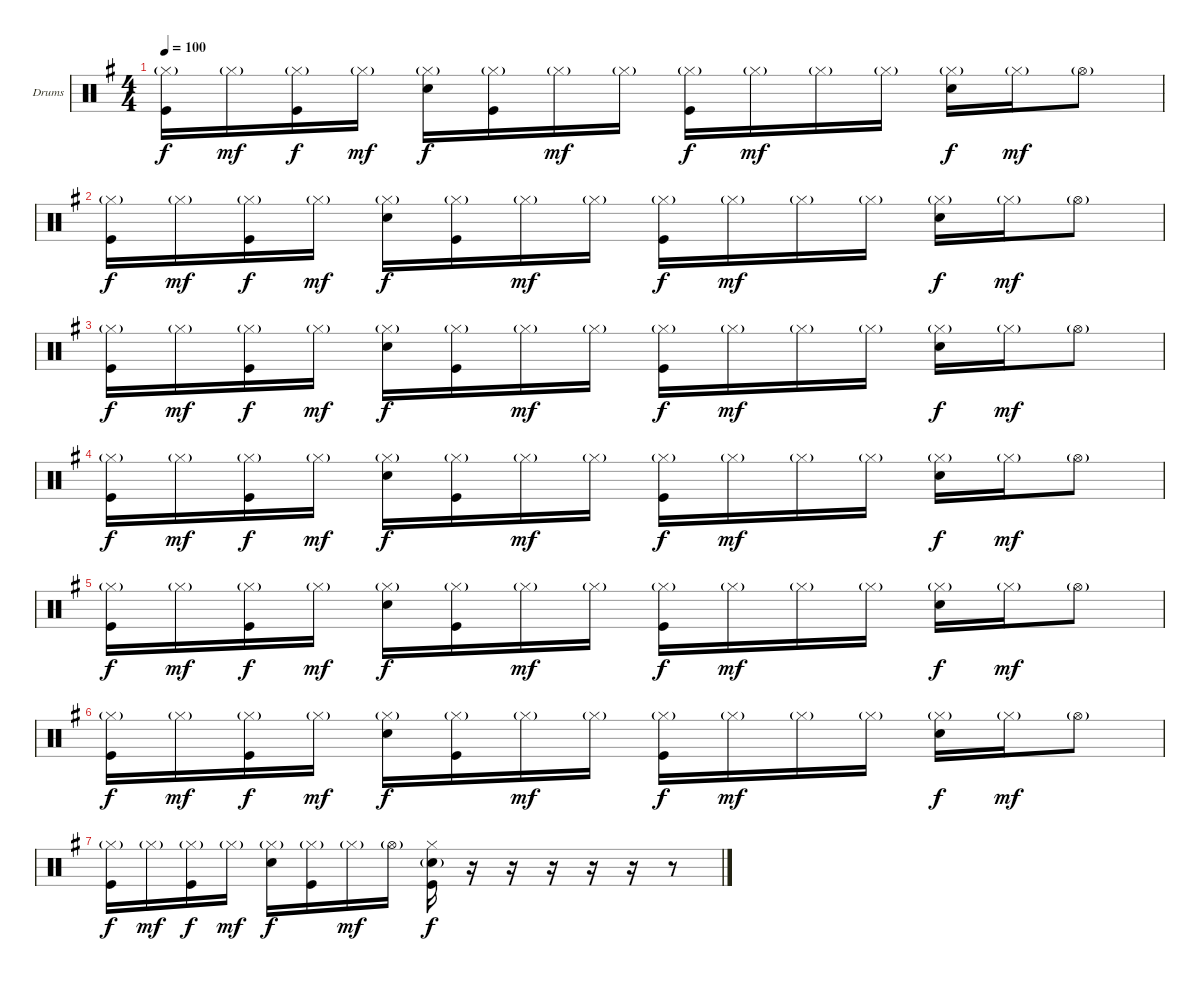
\bracketExtendMode groupsimilarinstruments
\firstSystemTrackNameOrientation horizontal
\otherSystemsTrackNameOrientation horizontal
\track ("Drumkit" "Drums") {instrument percussion}
\staff {score}
\articulation defaults
\ts (4 4)
\tempo 100
\clef neutral
\ks eminor
("Hi-Hat (closed)"{g} "Kick (hit)").16{dy f} "Hi-Hat (closed)"{g}.16{dy mf} ("Hi-Hat (closed)"{g} "Kick (hit)").16{dy f} "Hi-Hat (closed)"{g}.16{dy mf} ("Hi-Hat (closed)"{g} "Snare (hit) 2").16{dy f} ("Hi-Hat (closed)"{g} "Kick (hit)").16 "Hi-Hat (closed)"{g}.16{dy mf} "Hi-Hat (closed)"{g}.16 ("Hi-Hat (closed)"{g} "Kick (hit)").16{dy f} "Hi-Hat (closed)"{g}.16{dy mf} "Hi-Hat (closed)"{g}.16 "Hi-Hat (closed)"{g}.16 ("Hi-Hat (closed)"{g} "Snare (hit) 2").16{dy f} "Hi-Hat (closed)"{g}.16{dy mf} "Hi-Hat (open)"{g}.8 |
("Hi-Hat (closed)"{g} "Kick (hit)").16{dy f} "Hi-Hat (closed)"{g}.16{dy mf} ("Hi-Hat (closed)"{g} "Kick (hit)").16{dy f} "Hi-Hat (closed)"{g}.16{dy mf} ("Hi-Hat (closed)"{g} "Snare (hit) 2").16{dy f} ("Hi-Hat (closed)"{g} "Kick (hit)").16 "Hi-Hat (closed)"{g}.16{dy mf} "Hi-Hat (closed)"{g}.16 ("Hi-Hat (closed)"{g} "Kick (hit)").16{dy f} "Hi-Hat (closed)"{g}.16{dy mf} "Hi-Hat (closed)"{g}.16 "Hi-Hat (closed)"{g}.16 ("Hi-Hat (closed)"{g} "Snare (hit) 2").16{dy f} "Hi-Hat (closed)"{g}.16{dy mf} "Hi-Hat (open)"{g}.8 |
("Hi-Hat (closed)"{g} "Kick (hit)").16{dy f} "Hi-Hat (closed)"{g}.16{dy mf} ("Hi-Hat (closed)"{g} "Kick (hit)").16{dy f} "Hi-Hat (closed)"{g}.16{dy mf} ("Hi-Hat (closed)"{g} "Snare (hit) 2").16{dy f} ("Hi-Hat (closed)"{g} "Kick (hit)").16 "Hi-Hat (closed)"{g}.16{dy mf} "Hi-Hat (closed)"{g}.16 ("Hi-Hat (closed)"{g} "Kick (hit)").16{dy f} "Hi-Hat (closed)"{g}.16{dy mf} "Hi-Hat (closed)"{g}.16 "Hi-Hat (closed)"{g}.16 ("Hi-Hat (closed)"{g} "Snare (hit) 2").16{dy f} "Hi-Hat (closed)"{g}.16{dy mf} "Hi-Hat (open)"{g}.8 |
("Hi-Hat (closed)"{g} "Kick (hit)").16{dy f} "Hi-Hat (closed)"{g}.16{dy mf} ("Hi-Hat (closed)"{g} "Kick (hit)").16{dy f} "Hi-Hat (closed)"{g}.16{dy mf} ("Hi-Hat (closed)"{g} "Snare (hit) 2").16{dy f} ("Hi-Hat (closed)"{g} "Kick (hit)").16 "Hi-Hat (closed)"{g}.16{dy mf} "Hi-Hat (closed)"{g}.16 ("Hi-Hat (closed)"{g} "Kick (hit)").16{dy f} "Hi-Hat (closed)"{g}.16{dy mf} "Hi-Hat (closed)"{g}.16 "Hi-Hat (closed)"{g}.16 ("Hi-Hat (closed)"{g} "Snare (hit) 2").16{dy f} "Hi-Hat (closed)"{g}.16{dy mf} "Hi-Hat (open)"{g}.8 |
("Hi-Hat (closed)"{g} "Kick (hit)").16{dy f} "Hi-Hat (closed)"{g}.16{dy mf} ("Hi-Hat (closed)"{g} "Kick (hit)").16{dy f} "Hi-Hat (closed)"{g}.16{dy mf} ("Hi-Hat (closed)"{g} "Snare (hit) 2").16{dy f} ("Hi-Hat (closed)"{g} "Kick (hit)").16 "Hi-Hat (closed)"{g}.16{dy mf} "Hi-Hat (closed)"{g}.16 ("Hi-Hat (closed)"{g} "Kick (hit)").16{dy f} "Hi-Hat (closed)"{g}.16{dy mf} "Hi-Hat (closed)"{g}.16 "Hi-Hat (closed)"{g}.16 ("Hi-Hat (closed)"{g} "Snare (hit) 2").16{dy f} "Hi-Hat (closed)"{g}.16{dy mf} "Hi-Hat (open)"{g}.8 |
("Hi-Hat (closed)"{g} "Kick (hit)").16{dy f} "Hi-Hat (closed)"{g}.16{dy mf} ("Hi-Hat (closed)"{g} "Kick (hit)").16{dy f} "Hi-Hat (closed)"{g}.16{dy mf} ("Hi-Hat (closed)"{g} "Snare (hit) 2").16{dy f} ("Hi-Hat (closed)"{g} "Kick (hit)").16 "Hi-Hat (closed)"{g}.16{dy mf} "Hi-Hat (closed)"{g}.16 ("Hi-Hat (closed)"{g} "Kick (hit)").16{dy f} "Hi-Hat (closed)"{g}.16{dy mf} "Hi-Hat (closed)"{g}.16 "Hi-Hat (closed)"{g}.16 ("Hi-Hat (closed)"{g} "Snare (hit) 2").16{dy f} "Hi-Hat (closed)"{g}.16{dy mf} "Hi-Hat (open)"{g}.8 |
("Hi-Hat (closed)"{g} "Kick (hit)").16{dy f} "Hi-Hat (closed)"{g}.16{dy mf} ("Hi-Hat (closed)"{g} "Kick (hit)").16{dy f} "Hi-Hat (closed)"{g}.16{dy mf} ("Hi-Hat (closed)"{g} "Snare (hit) 2").16{dy f} ("Hi-Hat (closed)"{g} "Kick (hit)").16 "Hi-Hat (closed)"{g}.16{dy mf} "Hi-Hat (open)"{g}.16 ("Snare (hit) 2"{g} "Kick (hit)" "Hi-Hat (closed)").16{dy f} r.16 r.16 r.16 r.16 r.16 r.8
